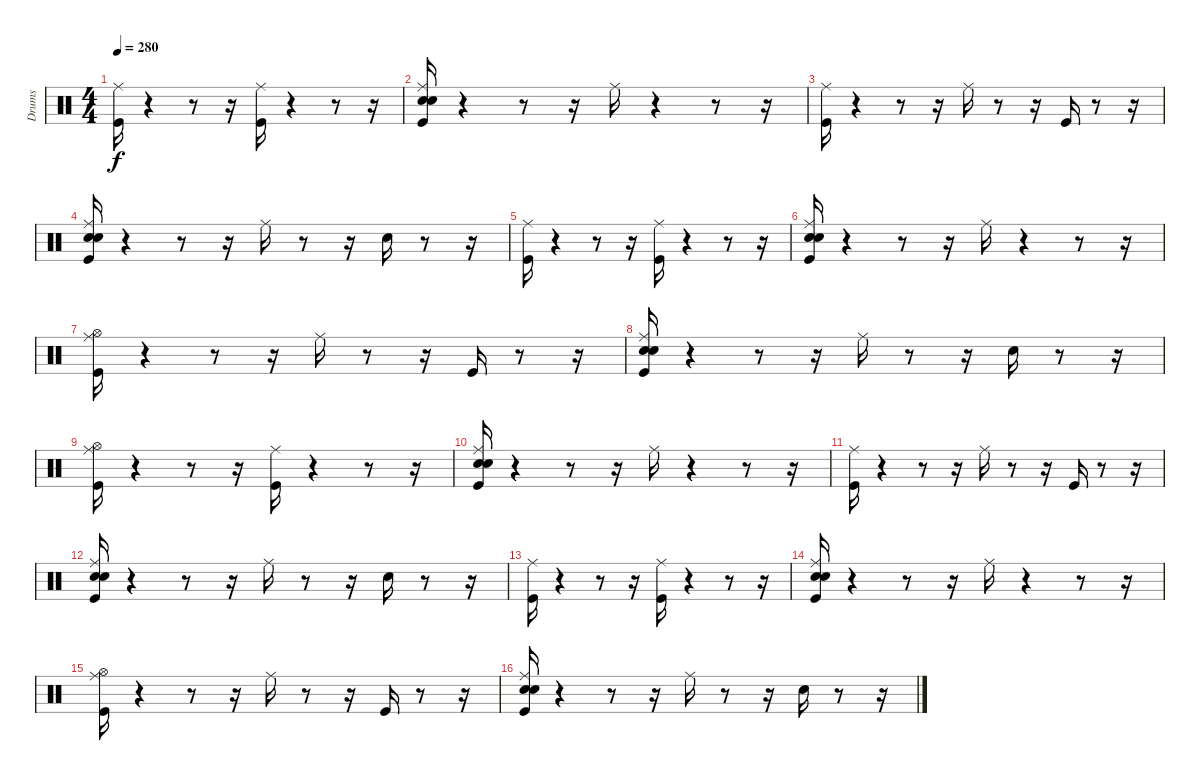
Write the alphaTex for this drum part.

\track ("Drums" "Drums") {instrument percussion}
\staff {score}
\articulation defaults
\ts (4 4)
\tempo 280
\clef neutral
\ks c
("Kick (hit)" "Ride (middle)").16{dy f} r.4 r.8 r.16 ("Kick (hit)" "Ride (middle)").16 r.4 r.8 r.16 |
("Kick (hit)" "Snare (hit) 2" "Electric Snare (hit)" "Ride (middle)").16 r.4 r.8 r.16 "Ride (middle)".16 r.4 r.8 r.16 |
("Kick (hit)" "Ride (middle)").16 r.4 r.8 r.16 "Ride (middle)".16 r.8 r.16 "Kick (hit)".16 r.8 r.16 |
("Kick (hit)" "Snare (hit) 2" "Electric Snare (hit)" "Ride (middle)").16 r.4 r.8 r.16 "Ride (middle)".16 r.8 r.16 "Snare (hit) 2".16 r.8 r.16 |
("Kick (hit)" "Ride (middle)").16 r.4 r.8 r.16 ("Kick (hit)" "Ride (middle)").16 r.4 r.8 r.16 |
("Kick (hit)" "Snare (hit) 2" "Electric Snare (hit)" "Ride (middle)").16 r.4 r.8 r.16 "Ride (middle)".16 r.4 r.8 r.16 |
("Kick (hit)" "Ride (middle)" "Hi-Hat (open)").16 r.4 r.8 r.16 "Ride (middle)".16 r.8 r.16 "Kick (hit)".16 r.8 r.16 |
("Kick (hit)" "Snare (hit) 2" "Electric Snare (hit)" "Ride (middle)").16 r.4 r.8 r.16 "Ride (middle)".16 r.8 r.16 "Snare (hit) 2".16 r.8 r.16 |
("Kick (hit)" "Ride (middle)" "Hi-Hat (open)").16 r.4 r.8 r.16 ("Kick (hit)" "Ride (middle)").16 r.4 r.8 r.16 |
("Kick (hit)" "Snare (hit) 2" "Electric Snare (hit)" "Ride (middle)").16 r.4 r.8 r.16 "Ride (middle)".16 r.4 r.8 r.16 |
("Kick (hit)" "Ride (middle)").16 r.4 r.8 r.16 "Ride (middle)".16 r.8 r.16 "Kick (hit)".16 r.8 r.16 |
("Kick (hit)" "Snare (hit) 2" "Electric Snare (hit)" "Ride (middle)").16 r.4 r.8 r.16 "Ride (middle)".16 r.8 r.16 "Snare (hit) 2".16 r.8 r.16 |
("Kick (hit)" "Ride (middle)").16 r.4 r.8 r.16 ("Kick (hit)" "Ride (middle)").16 r.4 r.8 r.16 |
("Kick (hit)" "Snare (hit) 2" "Electric Snare (hit)" "Ride (middle)").16 r.4 r.8 r.16 "Ride (middle)".16 r.4 r.8 r.16 |
("Kick (hit)" "Ride (middle)" "Hi-Hat (open)").16 r.4 r.8 r.16 "Ride (middle)".16 r.8 r.16 "Kick (hit)".16 r.8 r.16 |
("Kick (hit)" "Snare (hit) 2" "Electric Snare (hit)" "Ride (middle)").16 r.4 r.8 r.16 "Ride (middle)".16 r.8 r.16 "Snare (hit) 2".16 r.8 r.16
